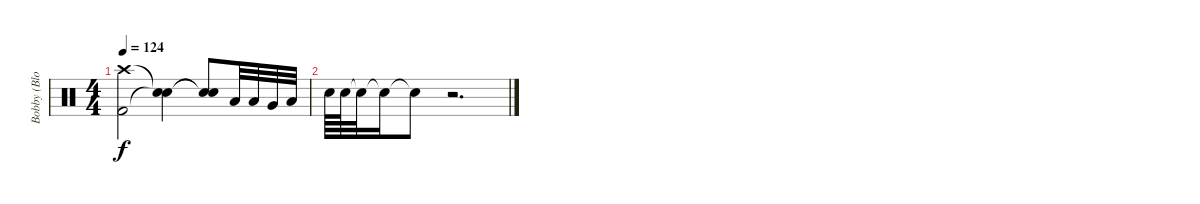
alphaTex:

\track ("Bobby (Blotz) Blotzer" "Bobby (Blo") {instrument percussion}
\staff {score}
\articulation defaults
\ts (4 4)
\tempo 124
\clef neutral
\ks c
("Kick (hit) 2" "Crash high (hit)").2{dy f} ("Snare (hit)"{t} "Snare (hit)"{t}).4 ("Snare (hit)"{t} "Snare (hit)"{t}).8 "Low Tom (hit)".32 "Low Tom (hit)".32 "Very Low Tom (hit)".32 "Low Floor Tom (hit)".32 |
"Snare (hit) 2".64 "Snare (hit) 2".64 "Snare (hit)"{t}.32 "Snare (hit)"{t}.16 "Snare (hit)"{t}.8 r.2{d}
